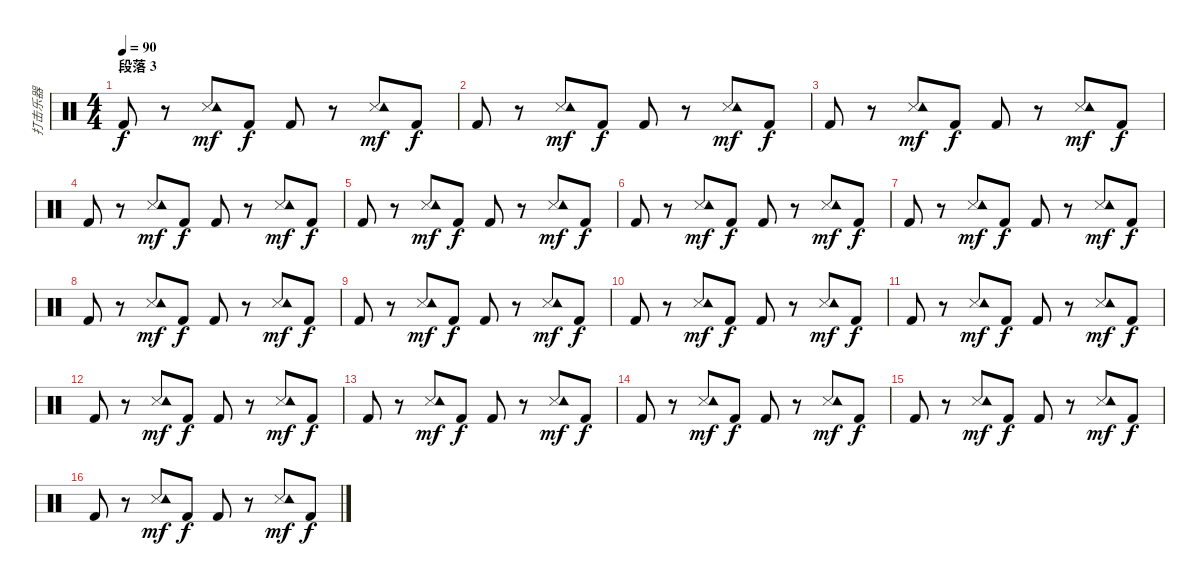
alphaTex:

\track ("打击乐器" "打击乐器") {instrument percussion}
\staff {score}
\articulation defaults
\ts (4 4)
\section ("" "段落 3")
\tempo 90
\clef neutral
\ks c "Kick (hit) 2".8{dy f}
r.8 ("Snare (side stick) 3" "Tambourine (hit)").8{dy mf} "Kick (hit) 2".8{dy f} "Kick (hit) 2".8 r.8 ("Snare (side stick) 3" "Tambourine (hit)").8{dy mf} "Kick (hit) 2".8{dy f} |
"Kick (hit) 2".8 r.8 ("Snare (side stick) 3" "Tambourine (hit)").8{dy mf} "Kick (hit) 2".8{dy f} "Kick (hit) 2".8 r.8 ("Snare (side stick) 3" "Tambourine (hit)").8{dy mf} "Kick (hit) 2".8{dy f} |
"Kick (hit) 2".8 r.8 ("Snare (side stick) 3" "Tambourine (hit)").8{dy mf} "Kick (hit) 2".8{dy f} "Kick (hit) 2".8 r.8 ("Snare (side stick) 3" "Tambourine (hit)").8{dy mf} "Kick (hit) 2".8{dy f} |
"Kick (hit) 2".8 r.8 ("Snare (side stick) 3" "Tambourine (hit)").8{dy mf} "Kick (hit) 2".8{dy f} "Kick (hit) 2".8 r.8 ("Snare (side stick) 3" "Tambourine (hit)").8{dy mf} "Kick (hit) 2".8{dy f} |
"Kick (hit) 2".8 r.8 ("Snare (side stick) 3" "Tambourine (hit)").8{dy mf} "Kick (hit) 2".8{dy f} "Kick (hit) 2".8 r.8 ("Snare (side stick) 3" "Tambourine (hit)").8{dy mf} "Kick (hit) 2".8{dy f} |
"Kick (hit) 2".8 r.8 ("Snare (side stick) 3" "Tambourine (hit)").8{dy mf} "Kick (hit) 2".8{dy f} "Kick (hit) 2".8 r.8 ("Snare (side stick) 3" "Tambourine (hit)").8{dy mf} "Kick (hit) 2".8{dy f} |
"Kick (hit) 2".8 r.8 ("Snare (side stick) 3" "Tambourine (hit)").8{dy mf} "Kick (hit) 2".8{dy f} "Kick (hit) 2".8 r.8 ("Snare (side stick) 3" "Tambourine (hit)").8{dy mf} "Kick (hit) 2".8{dy f} |
"Kick (hit) 2".8 r.8 ("Snare (side stick) 3" "Tambourine (hit)").8{dy mf} "Kick (hit) 2".8{dy f} "Kick (hit) 2".8 r.8 ("Snare (side stick) 3" "Tambourine (hit)").8{dy mf} "Kick (hit) 2".8{dy f} |
"Kick (hit) 2".8 r.8 ("Snare (side stick) 3" "Tambourine (hit)").8{dy mf} "Kick (hit) 2".8{dy f} "Kick (hit) 2".8 r.8 ("Snare (side stick) 3" "Tambourine (hit)").8{dy mf} "Kick (hit) 2".8{dy f} |
"Kick (hit) 2".8 r.8 ("Snare (side stick) 3" "Tambourine (hit)").8{dy mf} "Kick (hit) 2".8{dy f} "Kick (hit) 2".8 r.8 ("Snare (side stick) 3" "Tambourine (hit)").8{dy mf} "Kick (hit) 2".8{dy f} |
"Kick (hit) 2".8 r.8 ("Snare (side stick) 3" "Tambourine (hit)").8{dy mf} "Kick (hit) 2".8{dy f} "Kick (hit) 2".8 r.8 ("Snare (side stick) 3" "Tambourine (hit)").8{dy mf} "Kick (hit) 2".8{dy f} |
"Kick (hit) 2".8 r.8 ("Snare (side stick) 3" "Tambourine (hit)").8{dy mf} "Kick (hit) 2".8{dy f} "Kick (hit) 2".8 r.8 ("Snare (side stick) 3" "Tambourine (hit)").8{dy mf} "Kick (hit) 2".8{dy f} |
"Kick (hit) 2".8 r.8 ("Snare (side stick) 3" "Tambourine (hit)").8{dy mf} "Kick (hit) 2".8{dy f} "Kick (hit) 2".8 r.8 ("Snare (side stick) 3" "Tambourine (hit)").8{dy mf} "Kick (hit) 2".8{dy f} |
"Kick (hit) 2".8 r.8 ("Snare (side stick) 3" "Tambourine (hit)").8{dy mf} "Kick (hit) 2".8{dy f} "Kick (hit) 2".8 r.8 ("Snare (side stick) 3" "Tambourine (hit)").8{dy mf} "Kick (hit) 2".8{dy f} |
"Kick (hit) 2".8 r.8 ("Snare (side stick) 3" "Tambourine (hit)").8{dy mf} "Kick (hit) 2".8{dy f} "Kick (hit) 2".8 r.8 ("Snare (side stick) 3" "Tambourine (hit)").8{dy mf} "Kick (hit) 2".8{dy f} |
"Kick (hit) 2".8 r.8 ("Snare (side stick) 3" "Tambourine (hit)").8{dy mf} "Kick (hit) 2".8{dy f} "Kick (hit) 2".8 r.8 ("Snare (side stick) 3" "Tambourine (hit)").8{dy mf} "Kick (hit) 2".8{dy f}
